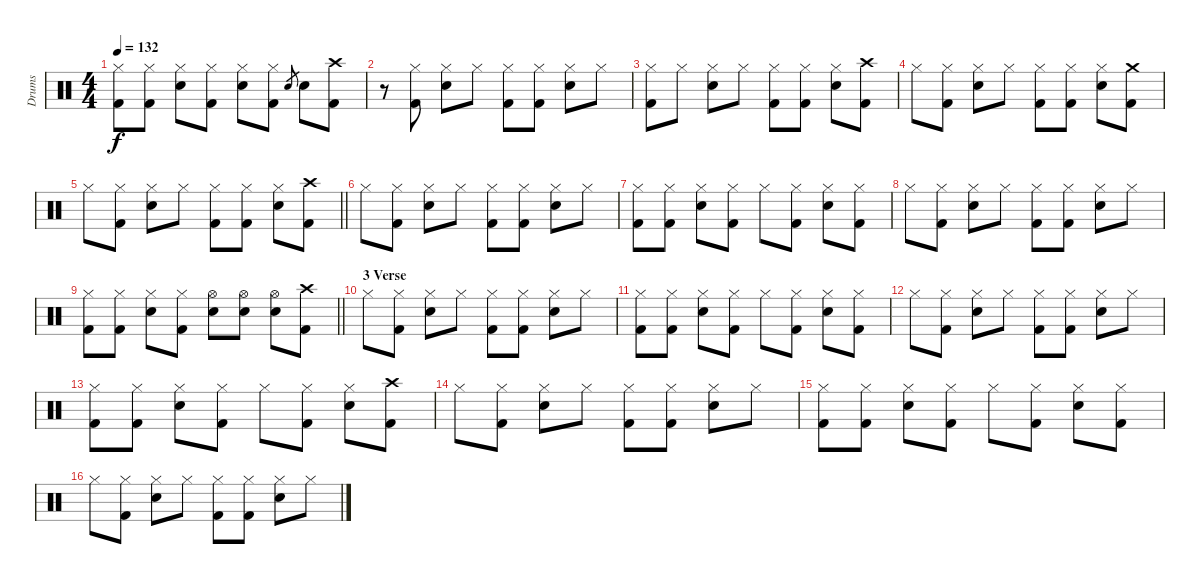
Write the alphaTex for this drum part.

\track ("Drums" "Drums") {instrument percussion}
\staff {score}
\articulation defaults
\ts (4 4)
\tempo 132
\clef neutral
\ks c
("Hi-Hat (closed)" "Kick (hit) 2").8{dy f} ("Hi-Hat (closed)" "Kick (hit) 2").8 ("Hi-Hat (closed)" "Electric Snare (hit)").8 ("Hi-Hat (closed)" "Kick (hit) 2").8 ("Hi-Hat (closed)" "Electric Snare (hit)").8 ("Hi-Hat (closed)" "Kick (hit) 2").8 "Electric Snare (hit)".8{gr} "Electric Snare (hit)".8 ("Crash high (hit)" "Kick (hit) 2").8 |
r.8 ("Hi-Hat (closed)" "Kick (hit) 2").8 ("Hi-Hat (closed)" "Electric Snare (hit)").8 "Hi-Hat (closed)".8 ("Hi-Hat (closed)" "Kick (hit) 2").8 ("Hi-Hat (closed)" "Kick (hit) 2").8 ("Hi-Hat (closed)" "Electric Snare (hit)").8 "Hi-Hat (closed)".8 |
("Hi-Hat (closed)" "Kick (hit) 2").8 "Hi-Hat (closed)".8 ("Hi-Hat (closed)" "Electric Snare (hit)").8 "Hi-Hat (closed)".8 ("Hi-Hat (closed)" "Kick (hit) 2").8 ("Hi-Hat (closed)" "Kick (hit) 2").8 ("Hi-Hat (closed)" "Electric Snare (hit)").8 ("Crash high (hit)" "Kick (hit) 2").8 |
"Hi-Hat (closed)".8 ("Hi-Hat (closed)" "Kick (hit) 2").8 ("Hi-Hat (closed)" "Electric Snare (hit)").8 "Hi-Hat (closed)".8 ("Hi-Hat (closed)" "Kick (hit) 2").8 ("Hi-Hat (closed)" "Kick (hit) 2").8 ("Hi-Hat (closed)" "Electric Snare (hit)").8 ("Crash medium (hit)" "Kick (hit) 2").8 |
\barLineRight lightlight "Hi-Hat (closed)".8
("Hi-Hat (closed)" "Kick (hit) 2").8 ("Hi-Hat (closed)" "Electric Snare (hit)").8 "Hi-Hat (closed)".8 ("Hi-Hat (closed)" "Kick (hit) 2").8 ("Hi-Hat (closed)" "Kick (hit) 2").8 ("Hi-Hat (closed)" "Electric Snare (hit)").8 ("Crash high (hit)" "Kick (hit) 2").8 |
\section ("" "")
"Hi-Hat (closed)".8 ("Hi-Hat (closed)" "Kick (hit) 2").8 ("Hi-Hat (closed)" "Electric Snare (hit)").8 "Hi-Hat (closed)".8 ("Hi-Hat (closed)" "Kick (hit) 2").8 ("Hi-Hat (closed)" "Kick (hit) 2").8 ("Hi-Hat (closed)" "Electric Snare (hit)").8 "Hi-Hat (closed)".8 |
("Hi-Hat (closed)" "Kick (hit) 2").8 ("Hi-Hat (closed)" "Kick (hit) 2").8 ("Hi-Hat (closed)" "Electric Snare (hit)").8 ("Hi-Hat (closed)" "Kick (hit) 2").8 "Hi-Hat (closed)".8 ("Hi-Hat (closed)" "Kick (hit) 2").8 ("Hi-Hat (closed)" "Electric Snare (hit)").8 ("Hi-Hat (closed)" "Kick (hit) 2").8 |
"Hi-Hat (closed)".8 ("Hi-Hat (closed)" "Kick (hit) 2").8 ("Hi-Hat (closed)" "Electric Snare (hit)").8 "Hi-Hat (closed)".8 ("Hi-Hat (closed)" "Kick (hit) 2").8 ("Hi-Hat (closed)" "Kick (hit) 2").8 ("Hi-Hat (closed)" "Electric Snare (hit)").8 "Hi-Hat (closed)".8 |
\barLineRight lightlight
("Hi-Hat (closed)" "Kick (hit) 2").8 ("Hi-Hat (closed)" "Kick (hit) 2").8 ("Hi-Hat (closed)" "Electric Snare (hit)").8 ("Hi-Hat (closed)" "Kick (hit) 2").8 ("Hi-Hat (open)" "Electric Snare (hit)").8 ("Hi-Hat (open)" "Electric Snare (hit)").8 ("Hi-Hat (open)" "Electric Snare (hit)").8 ("Crash high (hit)" "Kick (hit) 2").8 |
\section ("" "3 Verse")
"Hi-Hat (closed)".8 ("Hi-Hat (closed)" "Kick (hit) 2").8 ("Hi-Hat (closed)" "Electric Snare (hit)").8 "Hi-Hat (closed)".8 ("Hi-Hat (closed)" "Kick (hit) 2").8 ("Hi-Hat (closed)" "Kick (hit) 2").8 ("Hi-Hat (closed)" "Electric Snare (hit)").8 "Hi-Hat (closed)".8 |
("Hi-Hat (closed)" "Kick (hit) 2").8 ("Hi-Hat (closed)" "Kick (hit) 2").8 ("Hi-Hat (closed)" "Electric Snare (hit)").8 ("Hi-Hat (closed)" "Kick (hit) 2").8 "Hi-Hat (closed)".8 ("Hi-Hat (closed)" "Kick (hit) 2").8 ("Hi-Hat (closed)" "Electric Snare (hit)").8 ("Hi-Hat (closed)" "Kick (hit) 2").8 |
"Hi-Hat (closed)".8 ("Hi-Hat (closed)" "Kick (hit) 2").8 ("Hi-Hat (closed)" "Electric Snare (hit)").8 "Hi-Hat (closed)".8 ("Hi-Hat (closed)" "Kick (hit) 2").8 ("Hi-Hat (closed)" "Kick (hit) 2").8 ("Hi-Hat (closed)" "Electric Snare (hit)").8 "Hi-Hat (closed)".8 |
("Hi-Hat (closed)" "Kick (hit) 2").8 ("Hi-Hat (closed)" "Kick (hit) 2").8 ("Hi-Hat (closed)" "Electric Snare (hit)").8 ("Hi-Hat (closed)" "Kick (hit) 2").8 "Hi-Hat (closed)".8 ("Hi-Hat (closed)" "Kick (hit) 2").8 ("Hi-Hat (closed)" "Electric Snare (hit)").8 ("Crash high (hit)" "Kick (hit) 2").8 |
"Hi-Hat (closed)".8 ("Hi-Hat (closed)" "Kick (hit) 2").8 ("Hi-Hat (closed)" "Electric Snare (hit)").8 "Hi-Hat (closed)".8 ("Hi-Hat (closed)" "Kick (hit) 2").8 ("Hi-Hat (closed)" "Kick (hit) 2").8 ("Hi-Hat (closed)" "Electric Snare (hit)").8 "Hi-Hat (closed)".8 |
("Hi-Hat (closed)" "Kick (hit) 2").8 ("Hi-Hat (closed)" "Kick (hit) 2").8 ("Hi-Hat (closed)" "Electric Snare (hit)").8 ("Hi-Hat (closed)" "Kick (hit) 2").8 "Hi-Hat (closed)".8 ("Hi-Hat (closed)" "Kick (hit) 2").8 ("Hi-Hat (closed)" "Electric Snare (hit)").8 ("Hi-Hat (closed)" "Kick (hit) 2").8 |
"Hi-Hat (closed)".8 ("Hi-Hat (closed)" "Kick (hit) 2").8 ("Hi-Hat (closed)" "Electric Snare (hit)").8 "Hi-Hat (closed)".8 ("Hi-Hat (closed)" "Kick (hit) 2").8 ("Hi-Hat (closed)" "Kick (hit) 2").8 ("Hi-Hat (closed)" "Electric Snare (hit)").8 "Hi-Hat (closed)".8
